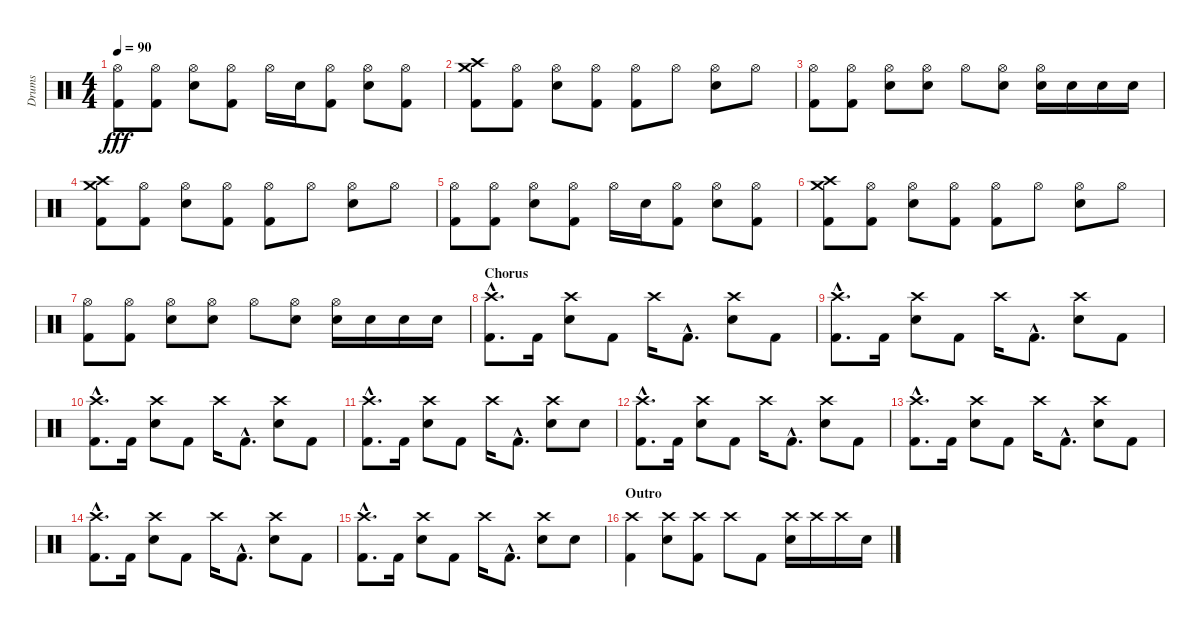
\track ("Drums" "Drums") {instrument percussion}
\staff {score}
\articulation defaults
\ts (4 4)
\tempo 90
\clef neutral
\ks c
("Hi-Hat (open)" "Kick (hit) 2").8{dy fff} ("Hi-Hat (open)" "Kick (hit) 2").8 ("Hi-Hat (open)" "Electric Snare (hit)").8 ("Hi-Hat (open)" "Kick (hit) 2").8 "Hi-Hat (open)".16 "Electric Snare (hit)".16 ("Hi-Hat (open)" "Kick (hit) 2").8 ("Hi-Hat (open)" "Electric Snare (hit)").8 ("Hi-Hat (open)" "Kick (hit) 2").8 |
("Crash high (hit)" "Crash medium (hit)" "Kick (hit) 2").8 ("Hi-Hat (open)" "Kick (hit) 2").8 ("Hi-Hat (open)" "Electric Snare (hit)").8 ("Hi-Hat (open)" "Kick (hit) 2").8 ("Hi-Hat (open)" "Kick (hit) 2").8 "Hi-Hat (open)".8 ("Hi-Hat (open)" "Electric Snare (hit)").8 "Hi-Hat (open)".8 |
("Hi-Hat (open)" "Kick (hit) 2").8 ("Hi-Hat (open)" "Kick (hit) 2").8 ("Hi-Hat (open)" "Electric Snare (hit)").8 ("Hi-Hat (open)" "Electric Snare (hit)").8 "Hi-Hat (open)".8 ("Hi-Hat (open)" "Electric Snare (hit)").8 ("Hi-Hat (open)" "Electric Snare (hit)").16 "Electric Snare (hit)".16 "Electric Snare (hit)".16 "Electric Snare (hit)".16 |
("Crash high (hit)" "Crash medium (hit)" "Kick (hit) 2").8 ("Hi-Hat (open)" "Kick (hit) 2").8 ("Hi-Hat (open)" "Electric Snare (hit)").8 ("Hi-Hat (open)" "Kick (hit) 2").8 ("Hi-Hat (open)" "Kick (hit) 2").8 "Hi-Hat (open)".8 ("Hi-Hat (open)" "Electric Snare (hit)").8 "Hi-Hat (open)".8 |
("Hi-Hat (open)" "Kick (hit) 2").8 ("Hi-Hat (open)" "Kick (hit) 2").8 ("Hi-Hat (open)" "Electric Snare (hit)").8 ("Hi-Hat (open)" "Kick (hit) 2").8 "Hi-Hat (open)".16 "Electric Snare (hit)".16 ("Hi-Hat (open)" "Kick (hit) 2").8 ("Hi-Hat (open)" "Electric Snare (hit)").8 ("Hi-Hat (open)" "Kick (hit) 2").8 |
("Crash high (hit)" "Crash medium (hit)" "Kick (hit) 2").8 ("Hi-Hat (open)" "Kick (hit) 2").8 ("Hi-Hat (open)" "Electric Snare (hit)").8 ("Hi-Hat (open)" "Kick (hit) 2").8 ("Hi-Hat (open)" "Kick (hit) 2").8 "Hi-Hat (open)".8 ("Hi-Hat (open)" "Electric Snare (hit)").8 "Hi-Hat (open)".8 |
("Hi-Hat (open)" "Kick (hit) 2").8 ("Hi-Hat (open)" "Kick (hit) 2").8 ("Hi-Hat (open)" "Electric Snare (hit)").8 ("Hi-Hat (open)" "Electric Snare (hit)").8 "Hi-Hat (open)".8 ("Hi-Hat (open)" "Electric Snare (hit)").8 ("Hi-Hat (open)" "Electric Snare (hit)").16 "Electric Snare (hit)".16 "Electric Snare (hit)".16 "Electric Snare (hit)".16 |
\section ("" "Chorus")
("Crash high (hit)"{hac} "Kick (hit) 2"{hac}).8{d} "Kick (hit) 2".16 ("Crash high (hit)" "Electric Snare (hit)").8 "Kick (hit) 2".8 "Crash high (hit)".16 "Kick (hit) 2"{hac}.8{d} ("Crash high (hit)" "Electric Snare (hit)").8 "Kick (hit) 2".8 |
("Crash high (hit)"{hac} "Kick (hit) 2"{hac}).8{d} "Kick (hit) 2".16 ("Crash high (hit)" "Electric Snare (hit)").8 "Kick (hit) 2".8 "Crash high (hit)".16 "Kick (hit) 2"{hac}.8{d} ("Crash high (hit)" "Electric Snare (hit)").8 "Kick (hit) 2".8 |
("Crash high (hit)"{hac} "Kick (hit) 2"{hac}).8{d} "Kick (hit) 2".16 ("Crash high (hit)" "Electric Snare (hit)").8 "Kick (hit) 2".8 "Crash high (hit)".16 "Kick (hit) 2"{hac}.8{d} ("Crash high (hit)" "Electric Snare (hit)").8 "Kick (hit) 2".8 |
("Crash high (hit)"{hac} "Kick (hit) 2"{hac}).8{d} "Kick (hit) 2".16 ("Crash high (hit)" "Electric Snare (hit)").8 "Kick (hit) 2".8 "Crash high (hit)".16 "Kick (hit) 2"{hac}.8{d} ("Crash high (hit)" "Electric Snare (hit)").8 "Electric Snare (hit)".8 |
("Crash high (hit)"{hac} "Kick (hit) 2"{hac}).8{d} "Kick (hit) 2".16 ("Crash high (hit)" "Electric Snare (hit)").8 "Kick (hit) 2".8 "Crash high (hit)".16 "Kick (hit) 2"{hac}.8{d} ("Crash high (hit)" "Electric Snare (hit)").8 "Kick (hit) 2".8 |
("Crash high (hit)"{hac} "Kick (hit) 2"{hac}).8{d} "Kick (hit) 2".16 ("Crash high (hit)" "Electric Snare (hit)").8 "Kick (hit) 2".8 "Crash high (hit)".16 "Kick (hit) 2"{hac}.8{d} ("Crash high (hit)" "Electric Snare (hit)").8 "Kick (hit) 2".8 |
("Crash high (hit)"{hac} "Kick (hit) 2"{hac}).8{d} "Kick (hit) 2".16 ("Crash high (hit)" "Electric Snare (hit)").8 "Kick (hit) 2".8 "Crash high (hit)".16 "Kick (hit) 2"{hac}.8{d} ("Crash high (hit)" "Electric Snare (hit)").8 "Kick (hit) 2".8 |
("Crash high (hit)"{hac} "Kick (hit) 2"{hac}).8{d} "Kick (hit) 2".16 ("Crash high (hit)" "Electric Snare (hit)").8 "Kick (hit) 2".8 "Crash high (hit)".16 "Kick (hit) 2"{hac}.8{d} ("Crash high (hit)" "Electric Snare (hit)").8 "Electric Snare (hit)".8 |
\section ("" "Outro")
("Crash high (hit)" "Kick (hit) 2").4 ("Crash high (hit)" "Electric Snare (hit)").8 ("Crash high (hit)" "Kick (hit) 2").8 "Crash high (hit)".8 "Kick (hit) 2".8 ("Crash high (hit)" "Electric Snare (hit)").16 "Crash high (hit)".16 "Crash high (hit)".16 "Electric Snare (hit)".16
